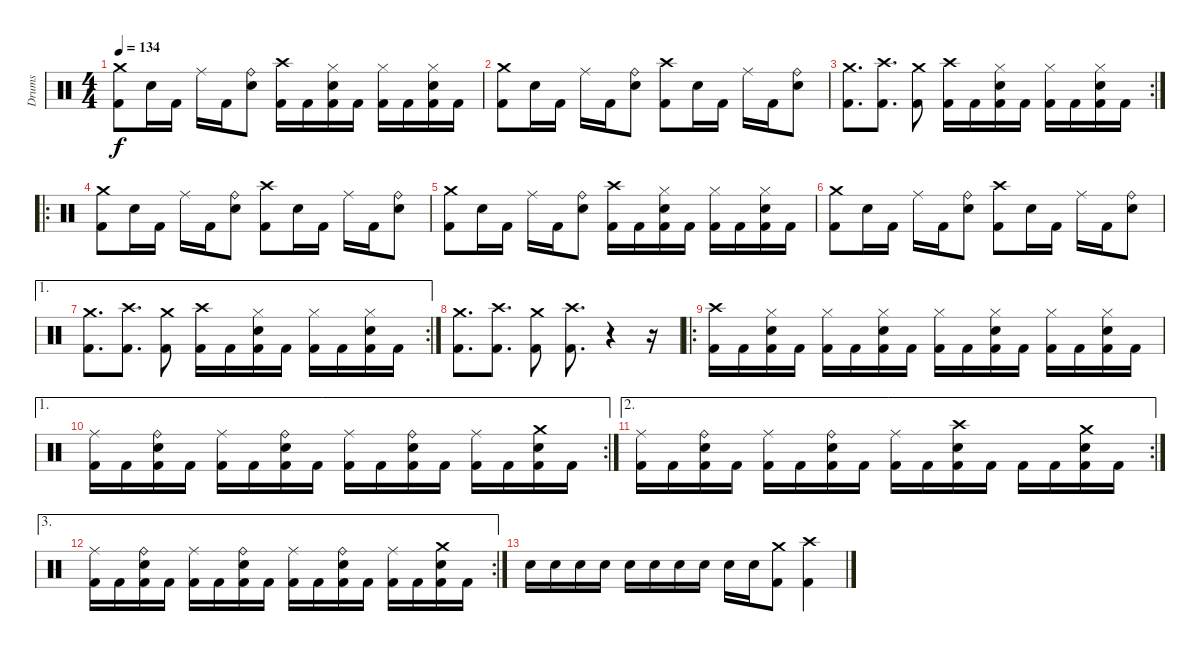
\track ("Drums" "Drums") {instrument percussion}
\staff {score}
\articulation defaults
\ts (4 4)
\tempo 134
\clef neutral
\ks c
("Crash medium (hit)" "Kick (hit) 2").8{dy f} "Electric Snare (hit)".16 "Kick (hit) 2".16 "Ride (middle)".16 "Kick (hit) 2".16 ("Ride (bell)" "Electric Snare (hit)").8 ("Crash high (hit)" "Kick (hit) 2").16 "Kick (hit) 2".16 ("Hi-Hat (closed)" "Electric Snare (hit)" "Kick (hit) 2").16 "Kick (hit) 2".16 ("Hi-Hat (closed)" "Kick (hit) 2").16 "Kick (hit) 2".16 ("Hi-Hat (closed)" "Electric Snare (hit)" "Kick (hit) 2").16 "Kick (hit) 2".16 |
("Crash medium (hit)" "Kick (hit) 2").8 "Electric Snare (hit)".16 "Kick (hit) 2".16 "Ride (middle)".16 "Kick (hit) 2".16 ("Ride (bell)" "Electric Snare (hit)").8 ("Crash high (hit)" "Kick (hit) 2").8 "Electric Snare (hit)".16 "Kick (hit) 2".16 "Ride (middle)".16 "Kick (hit) 2".16 ("Ride (bell)" "Electric Snare (hit)").8 |
\rc 2
("Crash medium (hit)" "Kick (hit) 2").8{d} ("Crash high (hit)" "Kick (hit) 2").8{d} ("Crash medium (hit)" "Kick (hit) 2").8 ("Crash high (hit)" "Kick (hit) 2").16 "Kick (hit) 2".16 ("Hi-Hat (closed)" "Electric Snare (hit)" "Kick (hit) 2").16 "Kick (hit) 2".16 ("Hi-Hat (closed)" "Kick (hit) 2").16 "Kick (hit) 2".16 ("Hi-Hat (closed)" "Electric Snare (hit)" "Kick (hit) 2").16 "Kick (hit) 2".16 |
\ro
("Crash medium (hit)" "Kick (hit) 2").8 "Electric Snare (hit)".16 "Kick (hit) 2".16 "Ride (middle)".16 "Kick (hit) 2".16 ("Ride (bell)" "Electric Snare (hit)").8 ("Crash high (hit)" "Kick (hit) 2").8 "Electric Snare (hit)".16 "Kick (hit) 2".16 "Ride (middle)".16 "Kick (hit) 2".16 ("Ride (bell)" "Electric Snare (hit)").8 |
("Crash medium (hit)" "Kick (hit) 2").8 "Electric Snare (hit)".16 "Kick (hit) 2".16 "Ride (middle)".16 "Kick (hit) 2".16 ("Ride (bell)" "Electric Snare (hit)").8 ("Crash high (hit)" "Kick (hit) 2").16 "Kick (hit) 2".16 ("Hi-Hat (closed)" "Electric Snare (hit)" "Kick (hit) 2").16 "Kick (hit) 2".16 ("Hi-Hat (closed)" "Kick (hit) 2").16 "Kick (hit) 2".16 ("Hi-Hat (closed)" "Electric Snare (hit)" "Kick (hit) 2").16 "Kick (hit) 2".16 |
("Crash medium (hit)" "Kick (hit) 2").8 "Electric Snare (hit)".16 "Kick (hit) 2".16 "Ride (middle)".16 "Kick (hit) 2".16 ("Ride (bell)" "Electric Snare (hit)").8 ("Crash high (hit)" "Kick (hit) 2").8 "Electric Snare (hit)".16 "Kick (hit) 2".16 "Ride (middle)".16 "Kick (hit) 2".16 ("Ride (bell)" "Electric Snare (hit)").8 |
\ae 1
\rc 2
("Crash medium (hit)" "Kick (hit) 2").8{d} ("Crash high (hit)" "Kick (hit) 2").8{d} ("Crash medium (hit)" "Kick (hit) 2").8 ("Crash high (hit)" "Kick (hit) 2").16 "Kick (hit) 2".16 ("Hi-Hat (closed)" "Electric Snare (hit)" "Kick (hit) 2").16 "Kick (hit) 2".16 ("Hi-Hat (closed)" "Kick (hit) 2").16 "Kick (hit) 2".16 ("Hi-Hat (closed)" "Electric Snare (hit)" "Kick (hit) 2").16 "Kick (hit) 2".16 |
("Crash medium (hit)" "Kick (hit) 2").8{d} ("Crash high (hit)" "Kick (hit) 2").8{d} ("Crash medium (hit)" "Kick (hit) 2").8 ("Crash high (hit)" "Kick (hit) 2").8{d} r.4 r.16 |
\ro
("Crash high (hit)" "Kick (hit) 2").16 "Kick (hit) 2".16 ("Hi-Hat (closed)" "Electric Snare (hit)" "Kick (hit) 2").16 "Kick (hit) 2".16 ("Hi-Hat (closed)" "Kick (hit) 2").16 "Kick (hit) 2".16 ("Hi-Hat (closed)" "Electric Snare (hit)" "Kick (hit) 2").16 "Kick (hit) 2".16 ("Hi-Hat (closed)" "Kick (hit) 2").16 "Kick (hit) 2".16 ("Hi-Hat (closed)" "Electric Snare (hit)" "Kick (hit) 2").16 "Kick (hit) 2".16 ("Hi-Hat (closed)" "Kick (hit) 2").16 "Kick (hit) 2".16 ("Hi-Hat (closed)" "Electric Snare (hit)" "Kick (hit) 2").16 "Kick (hit) 2".16 |
\ae 1
\rc 2
("Ride (middle)" "Kick (hit) 2").16 "Kick (hit) 2".16 ("Ride (bell)" "Electric Snare (hit)" "Kick (hit) 2").16 "Kick (hit) 2".16 ("Ride (middle)" "Kick (hit) 2").16 "Kick (hit) 2".16 ("Ride (bell)" "Electric Snare (hit)" "Kick (hit) 2").16 "Kick (hit) 2".16 ("Ride (middle)" "Kick (hit) 2").16 "Kick (hit) 2".16 ("Ride (bell)" "Electric Snare (hit)" "Kick (hit) 2").16 "Kick (hit) 2".16 ("Ride (middle)" "Kick (hit) 2").16 "Kick (hit) 2".16 ("Crash medium (hit)" "Electric Snare (hit)" "Kick (hit) 2").16 "Kick (hit) 2".16 |
\ae 2
\rc 2
("Ride (middle)" "Kick (hit) 2").16 "Kick (hit) 2".16 ("Ride (bell)" "Electric Snare (hit)" "Kick (hit) 2").16 "Kick (hit) 2".16 ("Ride (middle)" "Kick (hit) 2").16 "Kick (hit) 2".16 ("Ride (bell)" "Electric Snare (hit)" "Kick (hit) 2").16 "Kick (hit) 2".16 ("Ride (middle)" "Kick (hit) 2").16 "Kick (hit) 2".16 ("Crash high (hit)" "Electric Snare (hit)" "Kick (hit) 2").16 "Kick (hit) 2".16 "Kick (hit) 2".16 "Kick (hit) 2".16 ("Crash medium (hit)" "Electric Snare (hit)" "Kick (hit) 2").16 "Kick (hit) 2".16 |
\ae 3
\rc 2
("Ride (middle)" "Kick (hit) 2").16 "Kick (hit) 2".16 ("Ride (bell)" "Electric Snare (hit)" "Kick (hit) 2").16 "Kick (hit) 2".16 ("Ride (middle)" "Kick (hit) 2").16 "Kick (hit) 2".16 ("Ride (bell)" "Electric Snare (hit)" "Kick (hit) 2").16 "Kick (hit) 2".16 ("Ride (middle)" "Kick (hit) 2").16 "Kick (hit) 2".16 ("Ride (bell)" "Electric Snare (hit)" "Kick (hit) 2").16 "Kick (hit) 2".16 ("Ride (middle)" "Kick (hit) 2").16 "Kick (hit) 2".16 ("Crash medium (hit)" "Electric Snare (hit)" "Kick (hit) 2").16 "Kick (hit) 2".16 |
"Electric Snare (hit)".16 "Electric Snare (hit)".16 "Electric Snare (hit)".16 "Electric Snare (hit)".16 "Electric Snare (hit)".16 "Electric Snare (hit)".16 "Electric Snare (hit)".16 "Electric Snare (hit)".16 "Electric Snare (hit)".16 "Electric Snare (hit)".16 ("Crash medium (hit)" "Kick (hit) 2").8 ("Crash high (hit)" "Kick (hit) 2").4
